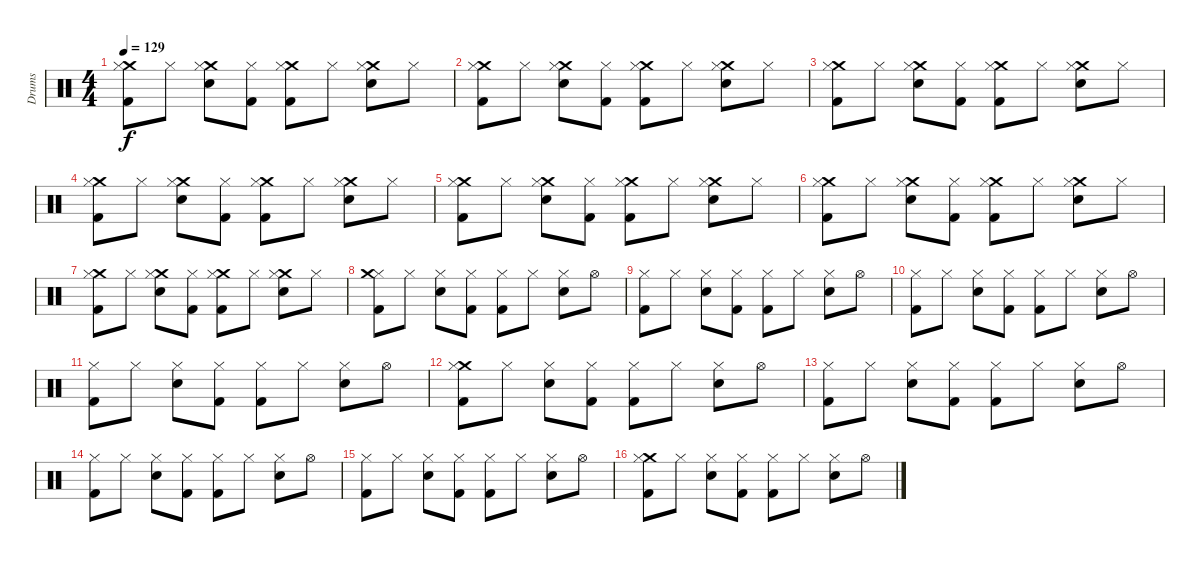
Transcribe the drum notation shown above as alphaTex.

\track ("Drums" "Drums") {instrument percussion}
\staff {score}
\articulation defaults
\ts (4 4)
\tempo 129
\clef neutral
\ks c
("Kick (hit) 2" "Crash medium (hit)" "Hi-Hat (closed)").8{dy f} "Hi-Hat (closed)".8 ("Crash medium (hit)" "Electric Snare (hit)" "Hi-Hat (closed)").8 ("Kick (hit) 2" "Hi-Hat (closed)").8 ("Crash medium (hit)" "Kick (hit) 2" "Hi-Hat (closed)").8 "Hi-Hat (closed)".8 ("Crash medium (hit)" "Electric Snare (hit)" "Hi-Hat (closed)").8 "Hi-Hat (closed)".8 |
("Kick (hit) 2" "Crash medium (hit)" "Hi-Hat (closed)").8 "Hi-Hat (closed)".8 ("Crash medium (hit)" "Electric Snare (hit)" "Hi-Hat (closed)").8 ("Kick (hit) 2" "Hi-Hat (closed)").8 ("Crash medium (hit)" "Kick (hit) 2" "Hi-Hat (closed)").8 "Hi-Hat (closed)".8 ("Crash medium (hit)" "Electric Snare (hit)" "Hi-Hat (closed)").8 "Hi-Hat (closed)".8 |
("Kick (hit) 2" "Crash medium (hit)" "Hi-Hat (closed)").8 "Hi-Hat (closed)".8 ("Crash medium (hit)" "Electric Snare (hit)" "Hi-Hat (closed)").8 ("Kick (hit) 2" "Hi-Hat (closed)").8 ("Crash medium (hit)" "Kick (hit) 2" "Hi-Hat (closed)").8 "Hi-Hat (closed)".8 ("Crash medium (hit)" "Electric Snare (hit)" "Hi-Hat (closed)").8 "Hi-Hat (closed)".8 |
("Kick (hit) 2" "Crash medium (hit)" "Hi-Hat (closed)").8 "Hi-Hat (closed)".8 ("Crash medium (hit)" "Electric Snare (hit)" "Hi-Hat (closed)").8 ("Kick (hit) 2" "Hi-Hat (closed)").8 ("Crash medium (hit)" "Kick (hit) 2" "Hi-Hat (closed)").8 "Hi-Hat (closed)".8 ("Crash medium (hit)" "Electric Snare (hit)" "Hi-Hat (closed)").8 "Hi-Hat (closed)".8 |
("Kick (hit) 2" "Crash medium (hit)" "Hi-Hat (closed)").8 "Hi-Hat (closed)".8 ("Crash medium (hit)" "Electric Snare (hit)" "Hi-Hat (closed)").8 ("Kick (hit) 2" "Hi-Hat (closed)").8 ("Crash medium (hit)" "Kick (hit) 2" "Hi-Hat (closed)").8 "Hi-Hat (closed)".8 ("Crash medium (hit)" "Electric Snare (hit)" "Hi-Hat (closed)").8 "Hi-Hat (closed)".8 |
("Kick (hit) 2" "Crash medium (hit)" "Hi-Hat (closed)").8 "Hi-Hat (closed)".8 ("Crash medium (hit)" "Electric Snare (hit)" "Hi-Hat (closed)").8 ("Kick (hit) 2" "Hi-Hat (closed)").8 ("Crash medium (hit)" "Kick (hit) 2" "Hi-Hat (closed)").8 "Hi-Hat (closed)".8 ("Crash medium (hit)" "Electric Snare (hit)" "Hi-Hat (closed)").8 "Hi-Hat (closed)".8 |
("Kick (hit) 2" "Crash medium (hit)" "Hi-Hat (closed)").8 "Hi-Hat (closed)".8 ("Crash medium (hit)" "Electric Snare (hit)" "Hi-Hat (closed)").8 ("Kick (hit) 2" "Hi-Hat (closed)").8 ("Crash medium (hit)" "Kick (hit) 2" "Hi-Hat (closed)").8 "Hi-Hat (closed)".8 ("Crash medium (hit)" "Electric Snare (hit)" "Hi-Hat (closed)").8 "Hi-Hat (closed)".8 |
("Kick (hit) 2" "Hi-Hat (closed)" "Crash medium (hit)").8 "Hi-Hat (closed)".8 ("Electric Snare (hit)" "Hi-Hat (closed)").8 ("Kick (hit) 2" "Hi-Hat (closed)").8 ("Kick (hit) 2" "Hi-Hat (closed)").8 "Hi-Hat (closed)".8 ("Electric Snare (hit)" "Hi-Hat (closed)").8 "Hi-Hat (open)".8 |
("Kick (hit) 2" "Hi-Hat (closed)").8 "Hi-Hat (closed)".8 ("Electric Snare (hit)" "Hi-Hat (closed)").8 ("Kick (hit) 2" "Hi-Hat (closed)").8 ("Kick (hit) 2" "Hi-Hat (closed)").8 "Hi-Hat (closed)".8 ("Electric Snare (hit)" "Hi-Hat (closed)").8 "Hi-Hat (open)".8 |
("Kick (hit) 2" "Hi-Hat (closed)").8 "Hi-Hat (closed)".8 ("Electric Snare (hit)" "Hi-Hat (closed)").8 ("Kick (hit) 2" "Hi-Hat (closed)").8 ("Kick (hit) 2" "Hi-Hat (closed)").8 "Hi-Hat (closed)".8 ("Electric Snare (hit)" "Hi-Hat (closed)").8 "Hi-Hat (open)".8 |
("Kick (hit) 2" "Hi-Hat (closed)").8 "Hi-Hat (closed)".8 ("Electric Snare (hit)" "Hi-Hat (closed)").8 ("Kick (hit) 2" "Hi-Hat (closed)").8 ("Kick (hit) 2" "Hi-Hat (closed)").8 "Hi-Hat (closed)".8 ("Electric Snare (hit)" "Hi-Hat (closed)").8 "Hi-Hat (open)".8 |
("Crash medium (hit)" "Kick (hit) 2" "Hi-Hat (closed)").8 "Hi-Hat (closed)".8 ("Electric Snare (hit)" "Hi-Hat (closed)").8 ("Kick (hit) 2" "Hi-Hat (closed)").8 ("Kick (hit) 2" "Hi-Hat (closed)").8 "Hi-Hat (closed)".8 ("Electric Snare (hit)" "Hi-Hat (closed)").8 "Hi-Hat (open)".8 |
("Kick (hit) 2" "Hi-Hat (closed)").8 "Hi-Hat (closed)".8 ("Electric Snare (hit)" "Hi-Hat (closed)").8 ("Kick (hit) 2" "Hi-Hat (closed)").8 ("Kick (hit) 2" "Hi-Hat (closed)").8 "Hi-Hat (closed)".8 ("Electric Snare (hit)" "Hi-Hat (closed)").8 "Hi-Hat (open)".8 |
("Kick (hit) 2" "Hi-Hat (closed)").8 "Hi-Hat (closed)".8 ("Electric Snare (hit)" "Hi-Hat (closed)").8 ("Kick (hit) 2" "Hi-Hat (closed)").8 ("Kick (hit) 2" "Hi-Hat (closed)").8 "Hi-Hat (closed)".8 ("Electric Snare (hit)" "Hi-Hat (closed)").8 "Hi-Hat (open)".8 |
("Kick (hit) 2" "Hi-Hat (closed)").8 "Hi-Hat (closed)".8 ("Electric Snare (hit)" "Hi-Hat (closed)").8 ("Kick (hit) 2" "Hi-Hat (closed)").8 ("Kick (hit) 2" "Hi-Hat (closed)").8 "Hi-Hat (closed)".8 ("Electric Snare (hit)" "Hi-Hat (closed)").8 "Hi-Hat (open)".8 |
("Crash medium (hit)" "Kick (hit) 2" "Hi-Hat (closed)").8 "Hi-Hat (closed)".8 ("Electric Snare (hit)" "Hi-Hat (closed)").8 ("Kick (hit) 2" "Hi-Hat (closed)").8 ("Kick (hit) 2" "Hi-Hat (closed)").8 "Hi-Hat (closed)".8 ("Electric Snare (hit)" "Hi-Hat (closed)").8 "Hi-Hat (open)".8
